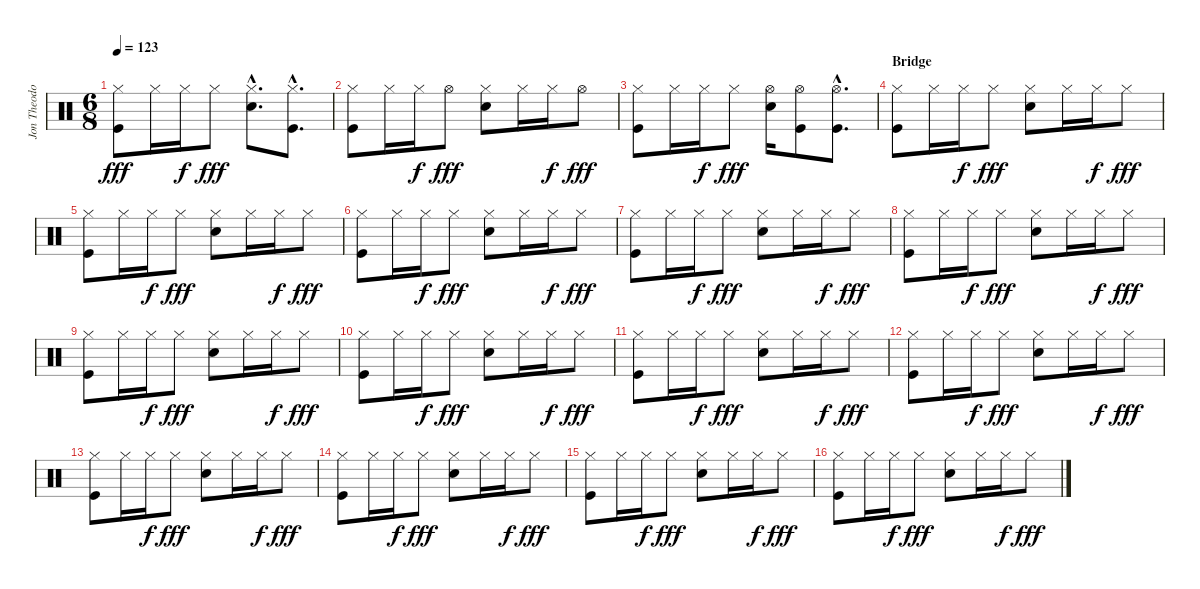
\track ("Jon Theodore - Drums" "Jon Theodo") {instrument percussion}
\staff {score}
\articulation defaults
\ts (6 8)
\tempo 123
\clef neutral
\ks c
("Hi-Hat (closed)" "Kick (hit)").8{dy fff} "Hi-Hat (closed)".16 "Hi-Hat (closed)".16{dy f} "Hi-Hat (closed)".8{dy fff} ("Hi-Hat (closed)"{hac} "Snare (hit) 2"{hac}).8{d} ("Hi-Hat (closed)"{hac} "Kick (hit)"{hac}).8{d} |
("Hi-Hat (closed)" "Kick (hit)").8 "Hi-Hat (closed)".16 "Hi-Hat (closed)".16{dy f} "Hi-Hat (open)".8{dy fff} ("Hi-Hat (closed)" "Snare (hit) 2").8 "Hi-Hat (closed)".16 "Hi-Hat (closed)".16{dy f} "Hi-Hat (open)".8{dy fff} |
("Hi-Hat (closed)" "Kick (hit)").8 "Hi-Hat (closed)".16 "Hi-Hat (closed)".16{dy f} "Hi-Hat (closed)".8{dy fff} ("Hi-Hat (open)" "Snare (hit) 2").16 ("Hi-Hat (open)" "Kick (hit)").8 ("Hi-Hat (open)"{hac} "Kick (hit)"{hac}).8{d} |
\section ("" "Bridge")
("Hi-Hat (closed)" "Kick (hit)").8 "Hi-Hat (closed)".16 "Hi-Hat (closed)".16{dy f} "Hi-Hat (closed)".8{dy fff} ("Hi-Hat (closed)" "Snare (hit) 2").8 "Hi-Hat (closed)".16 "Hi-Hat (closed)".16{dy f} "Hi-Hat (closed)".8{dy fff} |
("Hi-Hat (closed)" "Kick (hit)").8 "Hi-Hat (closed)".16 "Hi-Hat (closed)".16{dy f} "Hi-Hat (closed)".8{dy fff} ("Hi-Hat (closed)" "Snare (hit) 2").8 "Hi-Hat (closed)".16 "Hi-Hat (closed)".16{dy f} "Hi-Hat (closed)".8{dy fff} |
("Hi-Hat (closed)" "Kick (hit)").8 "Hi-Hat (closed)".16 "Hi-Hat (closed)".16{dy f} "Hi-Hat (closed)".8{dy fff} ("Hi-Hat (closed)" "Snare (hit) 2").8 "Hi-Hat (closed)".16 "Hi-Hat (closed)".16{dy f} "Hi-Hat (closed)".8{dy fff} |
("Hi-Hat (closed)" "Kick (hit)").8 "Hi-Hat (closed)".16 "Hi-Hat (closed)".16{dy f} "Hi-Hat (closed)".8{dy fff} ("Hi-Hat (closed)" "Snare (hit) 2").8 "Hi-Hat (closed)".16 "Hi-Hat (closed)".16{dy f} "Hi-Hat (closed)".8{dy fff} |
("Hi-Hat (closed)" "Kick (hit)").8 "Hi-Hat (closed)".16 "Hi-Hat (closed)".16{dy f} "Hi-Hat (closed)".8{dy fff} ("Hi-Hat (closed)" "Snare (hit) 2").8 "Hi-Hat (closed)".16 "Hi-Hat (closed)".16{dy f} "Hi-Hat (closed)".8{dy fff} |
("Hi-Hat (closed)" "Kick (hit)").8 "Hi-Hat (closed)".16 "Hi-Hat (closed)".16{dy f} "Hi-Hat (closed)".8{dy fff} ("Hi-Hat (closed)" "Snare (hit) 2").8 "Hi-Hat (closed)".16 "Hi-Hat (closed)".16{dy f} "Hi-Hat (closed)".8{dy fff} |
("Hi-Hat (closed)" "Kick (hit)").8 "Hi-Hat (closed)".16 "Hi-Hat (closed)".16{dy f} "Hi-Hat (closed)".8{dy fff} ("Hi-Hat (closed)" "Snare (hit) 2").8 "Hi-Hat (closed)".16 "Hi-Hat (closed)".16{dy f} "Hi-Hat (closed)".8{dy fff} |
("Hi-Hat (closed)" "Kick (hit)").8 "Hi-Hat (closed)".16 "Hi-Hat (closed)".16{dy f} "Hi-Hat (closed)".8{dy fff} ("Hi-Hat (closed)" "Snare (hit) 2").8 "Hi-Hat (closed)".16 "Hi-Hat (closed)".16{dy f} "Hi-Hat (closed)".8{dy fff} |
("Hi-Hat (closed)" "Kick (hit)").8 "Hi-Hat (closed)".16 "Hi-Hat (closed)".16{dy f} "Hi-Hat (closed)".8{dy fff} ("Hi-Hat (closed)" "Snare (hit) 2").8 "Hi-Hat (closed)".16 "Hi-Hat (closed)".16{dy f} "Hi-Hat (closed)".8{dy fff} |
("Hi-Hat (closed)" "Kick (hit)").8 "Hi-Hat (closed)".16 "Hi-Hat (closed)".16{dy f} "Hi-Hat (closed)".8{dy fff} ("Hi-Hat (closed)" "Snare (hit) 2").8 "Hi-Hat (closed)".16 "Hi-Hat (closed)".16{dy f} "Hi-Hat (closed)".8{dy fff} |
("Hi-Hat (closed)" "Kick (hit)").8 "Hi-Hat (closed)".16 "Hi-Hat (closed)".16{dy f} "Hi-Hat (closed)".8{dy fff} ("Hi-Hat (closed)" "Snare (hit) 2").8 "Hi-Hat (closed)".16 "Hi-Hat (closed)".16{dy f} "Hi-Hat (closed)".8{dy fff} |
("Hi-Hat (closed)" "Kick (hit)").8 "Hi-Hat (closed)".16 "Hi-Hat (closed)".16{dy f} "Hi-Hat (closed)".8{dy fff} ("Hi-Hat (closed)" "Snare (hit) 2").8 "Hi-Hat (closed)".16 "Hi-Hat (closed)".16{dy f} "Hi-Hat (closed)".8{dy fff} |
("Hi-Hat (closed)" "Kick (hit)").8 "Hi-Hat (closed)".16 "Hi-Hat (closed)".16{dy f} "Hi-Hat (closed)".8{dy fff} ("Hi-Hat (closed)" "Snare (hit) 2").8 "Hi-Hat (closed)".16 "Hi-Hat (closed)".16{dy f} "Hi-Hat (closed)".8{dy fff}
